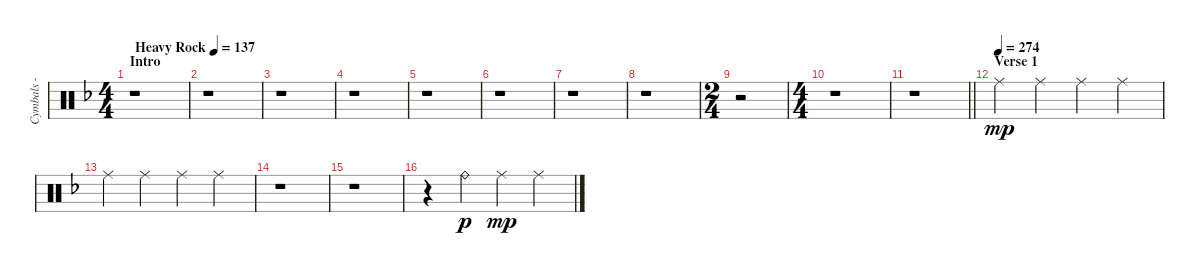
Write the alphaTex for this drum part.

\track ("Cymbals - ride" "Cymbals - ") {instrument percussion}
\staff {score}
\articulation defaults
\ts (4 4)
\section ("" "Intro")
\tempo (137 "Heavy Rock")
\clef neutral
\ks dminor
r.1{dy mp volume 0 balance 4} |
r.1 |
r.1 |
r.1 |
r.1 |
r.1 |
r.1 |
r.1 |
\ts (2 4)
r.2 |
\ts (4 4)
r.1 |
\barLineRight lightlight
r.1 |
\section ("" "Verse 1")
\tempo (274)
"Ride (middle)".4{volume 6} "Ride (middle)".4 "Ride (middle)".4 "Ride (middle)".4 |
"Ride (middle)".4 "Ride (middle)".4 "Ride (middle)".4 "Ride (middle)".4 |
r.1 |
r.1 |
r.4 "Ride (bell)".4{dy p} "Ride (middle)".4{dy mp} "Ride (middle)".4
